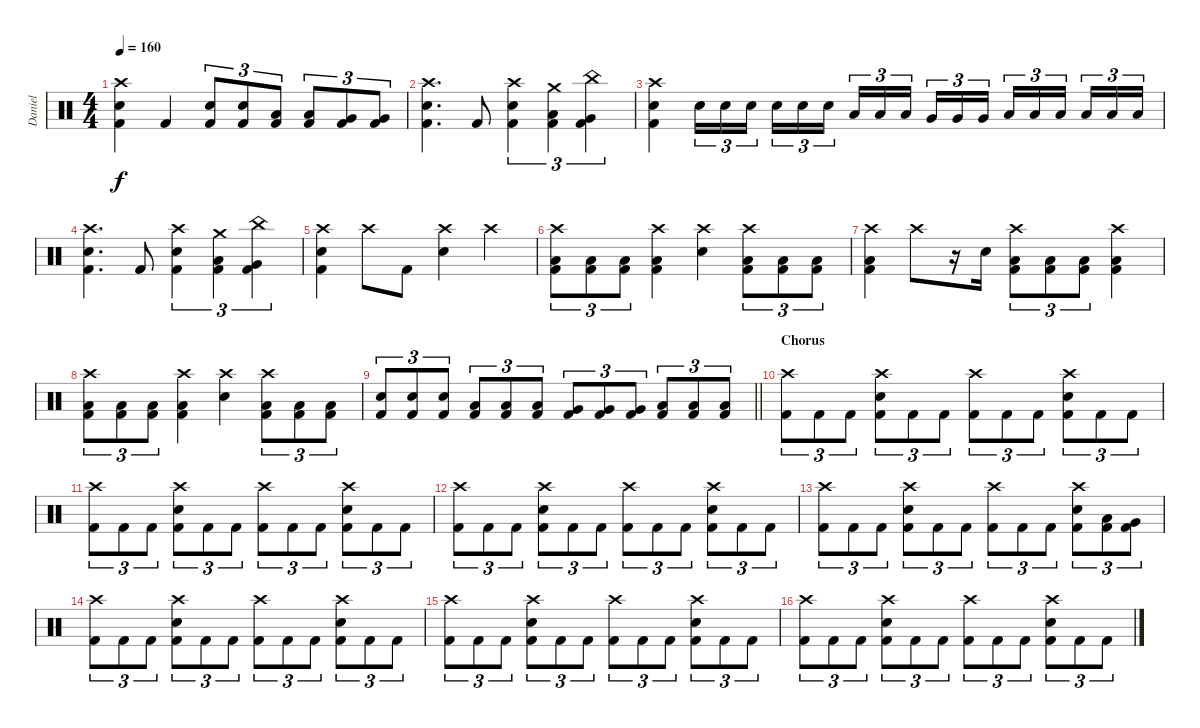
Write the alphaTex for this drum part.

\track ("Daniel" "Daniel") {instrument percussion}
\staff {score}
\articulation defaults
\ts (4 4)
\tempo 160
\clef neutral
\ks c
("Crash high (hit)" "Electric Snare (hit)" "Kick (hit) 2").4{dy f} "Kick (hit) 2".4 ("Electric Snare (hit)" "Kick (hit) 2").8{tu (3 2)} ("Electric Snare (hit)" "Kick (hit) 2").8{tu (3 2)} ("Low Tom (hit)" "Kick (hit) 2").8{tu (3 2)} ("Low Tom (hit)" "Kick (hit) 2").8{tu (3 2)} ("Very Low Tom (hit)" "Kick (hit) 2").8{tu (3 2)} ("Very Low Tom (hit)" "Kick (hit) 2").8{tu (3 2)} |
("Crash high (hit)" "Electric Snare (hit)" "Kick (hit) 2").4{d} "Kick (hit) 2".8 ("Crash high (hit)" "Electric Snare (hit)" "Kick (hit) 2").4{tu (3 2)} ("Crash medium (hit)" "Low Tom (hit)" "Kick (hit) 2").4{tu (3 2)} ("China (hit)" "Very Low Tom (hit)" "Kick (hit) 2").4{tu (3 2)} |
("Crash high (hit)" "Electric Snare (hit)" "Kick (hit) 2").4 "Electric Snare (hit)".16{tu (3 2)} "Electric Snare (hit)".16{tu (3 2)} "Electric Snare (hit)".16{tu (3 2) beam splitsecondary} "Electric Snare (hit)".16{tu (3 2)} "Electric Snare (hit)".16{tu (3 2)} "Electric Snare (hit)".16{tu (3 2)} "Low Tom (hit)".16{tu (3 2)} "Low Tom (hit)".16{tu (3 2)} "Low Tom (hit)".16{tu (3 2) beam splitsecondary} "Very Low Tom (hit)".16{tu (3 2)} "Very Low Tom (hit)".16{tu (3 2)} "Very Low Tom (hit)".16{tu (3 2)} "Low Floor Tom (hit)".16{tu (3 2)} "Low Floor Tom (hit)".16{tu (3 2)} "Low Floor Tom (hit)".16{tu (3 2) beam splitsecondary} "Low Floor Tom (hit)".16{tu (3 2)} "Low Floor Tom (hit)".16{tu (3 2)} "Low Floor Tom (hit)".16{tu (3 2)} |
("Crash high (hit)" "Electric Snare (hit)" "Kick (hit) 2").4{d} "Kick (hit) 2".8 ("Crash high (hit)" "Electric Snare (hit)" "Kick (hit) 2").4{tu (3 2)} ("Crash medium (hit)" "Low Tom (hit)" "Kick (hit) 2").4{tu (3 2)} ("China (hit)" "Very Low Tom (hit)" "Kick (hit) 2").4{tu (3 2)} |
("Crash high (hit)" "Electric Snare (hit)" "Kick (hit) 2").4 "Crash high (hit)".8 "Kick (hit) 2".8 ("Crash high (hit)" "Electric Snare (hit)").4 "Crash high (hit)".4 |
("Crash high (hit)" "Low Floor Tom (hit)" "Kick (hit) 2").8{tu (3 2)} ("Low Floor Tom (hit)" "Kick (hit) 2").8{tu (3 2)} ("Low Floor Tom (hit)" "Kick (hit) 2").8{tu (3 2)} ("Crash high (hit)" "Low Floor Tom (hit)" "Kick (hit) 2").4 ("Crash high (hit)" "Electric Snare (hit)").4 ("Crash high (hit)" "Low Floor Tom (hit)" "Kick (hit) 2").8{tu (3 2)} ("Low Floor Tom (hit)" "Kick (hit) 2").8{tu (3 2)} ("Low Floor Tom (hit)" "Kick (hit) 2").8{tu (3 2)} |
("Crash high (hit)" "Low Floor Tom (hit)" "Kick (hit) 2").4 "Crash high (hit)".8 r.16 "Electric Snare (hit)".16 ("Crash high (hit)" "Low Floor Tom (hit)" "Kick (hit) 2").8{tu (3 2)} ("Low Floor Tom (hit)" "Kick (hit) 2").8{tu (3 2)} ("Low Floor Tom (hit)" "Kick (hit) 2").8{tu (3 2)} ("Crash high (hit)" "Low Floor Tom (hit)" "Kick (hit) 2").4 |
("Crash high (hit)" "Low Floor Tom (hit)" "Kick (hit) 2").8{tu (3 2)} ("Low Floor Tom (hit)" "Kick (hit) 2").8{tu (3 2)} ("Low Floor Tom (hit)" "Kick (hit) 2").8{tu (3 2)} ("Crash high (hit)" "Low Floor Tom (hit)" "Kick (hit) 2").4 ("Crash high (hit)" "Electric Snare (hit)").4 ("Crash high (hit)" "Low Floor Tom (hit)" "Kick (hit) 2").8{tu (3 2)} ("Low Floor Tom (hit)" "Kick (hit) 2").8{tu (3 2)} ("Low Floor Tom (hit)" "Kick (hit) 2").8{tu (3 2)} |
\barLineRight lightlight
("Electric Snare (hit)" "Kick (hit) 2").8{tu (3 2)} ("Electric Snare (hit)" "Kick (hit) 2").8{tu (3 2)} ("Electric Snare (hit)" "Kick (hit) 2").8{tu (3 2)} ("Low Tom (hit)" "Kick (hit) 2").8{tu (3 2)} ("Low Tom (hit)" "Kick (hit) 2").8{tu (3 2)} ("Low Tom (hit)" "Kick (hit) 2").8{tu (3 2)} ("Very Low Tom (hit)" "Kick (hit) 2").8{tu (3 2)} ("Very Low Tom (hit)" "Kick (hit) 2").8{tu (3 2)} ("Very Low Tom (hit)" "Kick (hit) 2").8{tu (3 2)} ("Low Floor Tom (hit)" "Kick (hit) 2").8{tu (3 2)} ("Low Floor Tom (hit)" "Kick (hit) 2").8{tu (3 2)} ("Low Floor Tom (hit)" "Kick (hit) 2").8{tu (3 2)} |
\section ("" "Chorus")
("Crash high (hit)" "Kick (hit) 2").8{tu (3 2)} "Kick (hit) 2".8{tu (3 2)} "Kick (hit) 2".8{tu (3 2)} ("Crash high (hit)" "Electric Snare (hit)" "Kick (hit) 2").8{tu (3 2)} "Kick (hit) 2".8{tu (3 2)} "Kick (hit) 2".8{tu (3 2)} ("Crash high (hit)" "Kick (hit) 2").8{tu (3 2)} "Kick (hit) 2".8{tu (3 2)} "Kick (hit) 2".8{tu (3 2)} ("Crash high (hit)" "Electric Snare (hit)" "Kick (hit) 2").8{tu (3 2)} "Kick (hit) 2".8{tu (3 2)} "Kick (hit) 2".8{tu (3 2)} |
("Crash high (hit)" "Kick (hit) 2").8{tu (3 2)} "Kick (hit) 2".8{tu (3 2)} "Kick (hit) 2".8{tu (3 2)} ("Crash high (hit)" "Electric Snare (hit)" "Kick (hit) 2").8{tu (3 2)} "Kick (hit) 2".8{tu (3 2)} "Kick (hit) 2".8{tu (3 2)} ("Crash high (hit)" "Kick (hit) 2").8{tu (3 2)} "Kick (hit) 2".8{tu (3 2)} "Kick (hit) 2".8{tu (3 2)} ("Crash high (hit)" "Electric Snare (hit)" "Kick (hit) 2").8{tu (3 2)} "Kick (hit) 2".8{tu (3 2)} "Kick (hit) 2".8{tu (3 2)} |
("Crash high (hit)" "Kick (hit) 2").8{tu (3 2)} "Kick (hit) 2".8{tu (3 2)} "Kick (hit) 2".8{tu (3 2)} ("Crash high (hit)" "Electric Snare (hit)" "Kick (hit) 2").8{tu (3 2)} "Kick (hit) 2".8{tu (3 2)} "Kick (hit) 2".8{tu (3 2)} ("Crash high (hit)" "Kick (hit) 2").8{tu (3 2)} "Kick (hit) 2".8{tu (3 2)} "Kick (hit) 2".8{tu (3 2)} ("Crash high (hit)" "Electric Snare (hit)" "Kick (hit) 2").8{tu (3 2)} "Kick (hit) 2".8{tu (3 2)} "Kick (hit) 2".8{tu (3 2)} |
("Crash high (hit)" "Kick (hit) 2").8{tu (3 2)} "Kick (hit) 2".8{tu (3 2)} "Kick (hit) 2".8{tu (3 2)} ("Crash high (hit)" "Electric Snare (hit)" "Kick (hit) 2").8{tu (3 2)} "Kick (hit) 2".8{tu (3 2)} "Kick (hit) 2".8{tu (3 2)} ("Crash high (hit)" "Kick (hit) 2").8{tu (3 2)} "Kick (hit) 2".8{tu (3 2)} "Kick (hit) 2".8{tu (3 2)} ("Crash high (hit)" "Electric Snare (hit)" "Kick (hit) 2").8{tu (3 2)} ("Low Tom (hit)" "Kick (hit) 2").8{tu (3 2)} ("Very Low Tom (hit)" "Kick (hit) 2").8{tu (3 2)} |
("Crash high (hit)" "Kick (hit) 2").8{tu (3 2)} "Kick (hit) 2".8{tu (3 2)} "Kick (hit) 2".8{tu (3 2)} ("Crash high (hit)" "Electric Snare (hit)" "Kick (hit) 2").8{tu (3 2)} "Kick (hit) 2".8{tu (3 2)} "Kick (hit) 2".8{tu (3 2)} ("Crash high (hit)" "Kick (hit) 2").8{tu (3 2)} "Kick (hit) 2".8{tu (3 2)} "Kick (hit) 2".8{tu (3 2)} ("Crash high (hit)" "Electric Snare (hit)" "Kick (hit) 2").8{tu (3 2)} "Kick (hit) 2".8{tu (3 2)} "Kick (hit) 2".8{tu (3 2)} |
("Crash high (hit)" "Kick (hit) 2").8{tu (3 2)} "Kick (hit) 2".8{tu (3 2)} "Kick (hit) 2".8{tu (3 2)} ("Crash high (hit)" "Electric Snare (hit)" "Kick (hit) 2").8{tu (3 2)} "Kick (hit) 2".8{tu (3 2)} "Kick (hit) 2".8{tu (3 2)} ("Crash high (hit)" "Kick (hit) 2").8{tu (3 2)} "Kick (hit) 2".8{tu (3 2)} "Kick (hit) 2".8{tu (3 2)} ("Crash high (hit)" "Electric Snare (hit)" "Kick (hit) 2").8{tu (3 2)} "Kick (hit) 2".8{tu (3 2)} "Kick (hit) 2".8{tu (3 2)} |
("Crash high (hit)" "Kick (hit) 2").8{tu (3 2)} "Kick (hit) 2".8{tu (3 2)} "Kick (hit) 2".8{tu (3 2)} ("Crash high (hit)" "Electric Snare (hit)" "Kick (hit) 2").8{tu (3 2)} "Kick (hit) 2".8{tu (3 2)} "Kick (hit) 2".8{tu (3 2)} ("Crash high (hit)" "Kick (hit) 2").8{tu (3 2)} "Kick (hit) 2".8{tu (3 2)} "Kick (hit) 2".8{tu (3 2)} ("Crash high (hit)" "Electric Snare (hit)" "Kick (hit) 2").8{tu (3 2)} "Kick (hit) 2".8{tu (3 2)} "Kick (hit) 2".8{tu (3 2)}
